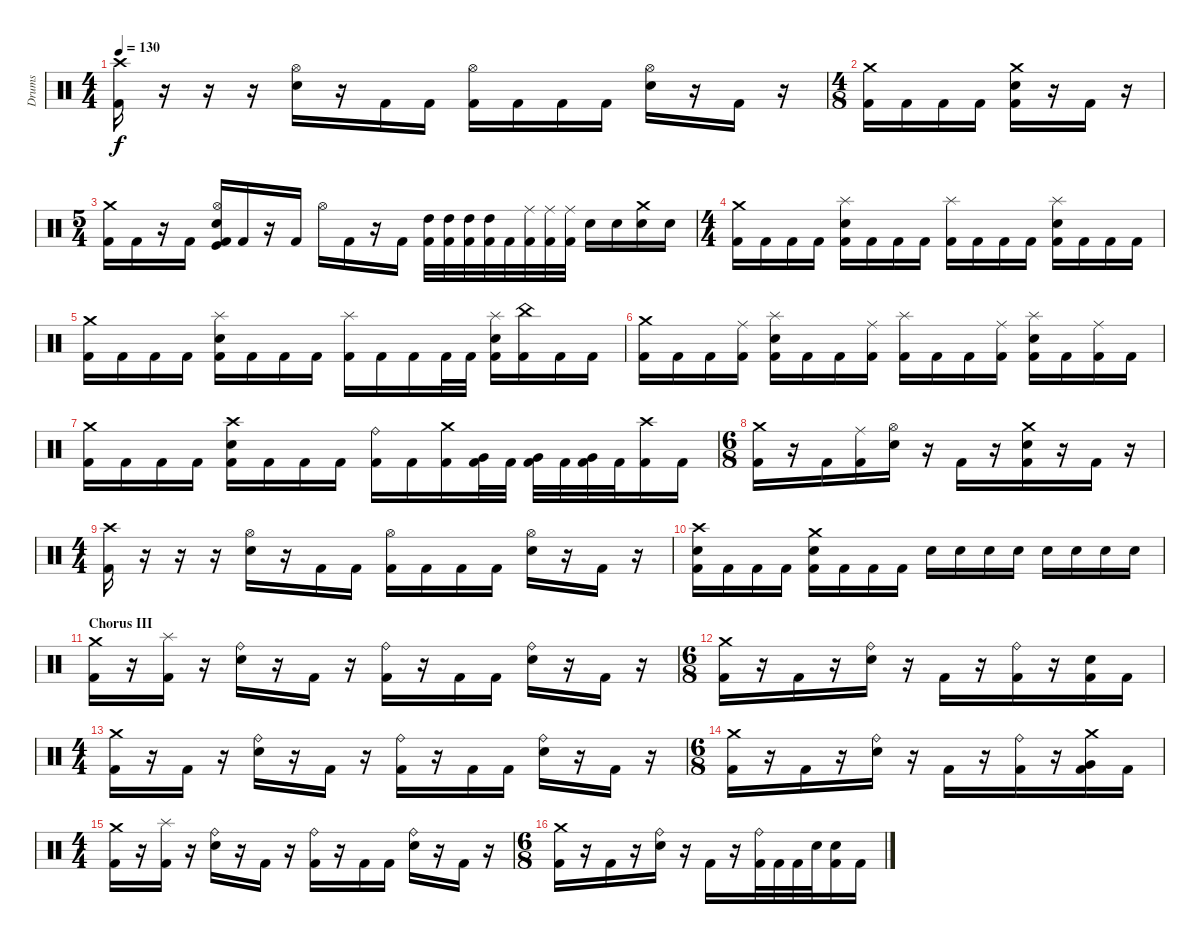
\track ("Drums" "Drums") {instrument percussion}
\staff {score}
\articulation defaults
\ts (4 4)
\tempo 130
\clef neutral
\ks c
("Crash high (hit)" "Kick (hit) 2").16{dy f} r.16 r.16 r.16 ("Hi-Hat (open)" "Electric Snare (hit)").16 r.16 "Kick (hit) 2".16 "Kick (hit) 2".16 ("Hi-Hat (open)" "Kick (hit) 2").16 "Kick (hit) 2".16 "Kick (hit) 2".16 "Kick (hit) 2".16 ("Hi-Hat (open)" "Electric Snare (hit)").16 r.16 "Kick (hit) 2".16 r.16 |
\ts (4 8)
("Crash medium (hit)" "Kick (hit) 2").16 "Kick (hit) 2".16 "Kick (hit) 2".16 "Kick (hit) 2".16 ("Crash medium (hit)" "Electric Snare (hit)" "Kick (hit) 2").16 r.16 "Kick (hit) 2".16 r.16 |
\ts (5 4)
("Crash medium (hit)" "Kick (hit) 2").16 "Kick (hit) 2".16 r.16 "Kick (hit) 2".16 ("Hi-Hat (open)" "Electric Snare (hit)" "Kick (hit) 2" "Kick (hit)").16 "Kick (hit) 2".16 r.16 "Kick (hit) 2".16 "Hi-Hat (open)".16 "Kick (hit) 2".16 r.16 "Kick (hit) 2".16 ("High Tom (hit)" "Kick (hit) 2").32 ("High Tom (hit)" "Kick (hit) 2").32 ("High Tom (hit)" "Kick (hit) 2").32 ("High Tom (hit)" "Kick (hit) 2").32 "Kick (hit) 2".32 ("Ride (middle)" "Kick (hit) 2").32 ("Ride (middle)" "Kick (hit) 2").32 ("Ride (middle)" "Kick (hit) 2").32 "Electric Snare (hit)".16 "Electric Snare (hit)".16 ("Crash medium (hit)" "Electric Snare (hit)").16 "Electric Snare (hit)".16 |
\ts (4 4)
("Crash medium (hit)" "Kick (hit) 2").16 "Kick (hit) 2".16 "Kick (hit) 2".16 "Kick (hit) 2".16 ("Splash (hit)" "Electric Snare (hit)" "Kick (hit) 2").16 "Kick (hit) 2".16 "Kick (hit) 2".16 "Kick (hit) 2".16 ("Splash (hit)" "Kick (hit) 2").16 "Kick (hit) 2".16 "Kick (hit) 2".16 "Kick (hit) 2".16 ("Splash (hit)" "Electric Snare (hit)" "Kick (hit) 2").16 "Kick (hit) 2".16 "Kick (hit) 2".16 "Kick (hit) 2".16 |
("Crash medium (hit)" "Kick (hit) 2").16 "Kick (hit) 2".16 "Kick (hit) 2".16 "Kick (hit) 2".16 ("Splash (hit)" "Electric Snare (hit)" "Kick (hit) 2").16 "Kick (hit) 2".16 "Kick (hit) 2".16 "Kick (hit) 2".16 ("Splash (hit)" "Kick (hit) 2").16 "Kick (hit) 2".16 "Kick (hit) 2".16 "Kick (hit) 2".32 "Kick (hit) 2".32 ("Splash (hit)" "Electric Snare (hit)" "Kick (hit) 2").16 ("China (hit)" "Kick (hit) 2").16 "Kick (hit) 2".16 "Kick (hit) 2".16 |
("Crash medium (hit)" "Kick (hit) 2").16 "Kick (hit) 2".16 "Kick (hit) 2".16 ("Ride (middle)" "Kick (hit) 2").16 ("Splash (hit)" "Electric Snare (hit)" "Kick (hit) 2").16 "Kick (hit) 2".16 "Kick (hit) 2".16 ("Ride (middle)" "Kick (hit) 2").16 ("Splash (hit)" "Kick (hit) 2").16 "Kick (hit) 2".16 "Kick (hit) 2".16 ("Ride (middle)" "Kick (hit) 2").16 ("Splash (hit)" "Electric Snare (hit)" "Kick (hit) 2").16 "Kick (hit) 2".16 ("Ride (middle)" "Kick (hit) 2").16 "Kick (hit) 2".16 |
("Crash medium (hit)" "Kick (hit) 2").16 "Kick (hit) 2".16 "Kick (hit) 2".16 "Kick (hit) 2".16 ("Crash high (hit)" "Electric Snare (hit)" "Kick (hit) 2").16 "Kick (hit) 2".16 "Kick (hit) 2".16 "Kick (hit) 2".16 ("Ride (bell)" "Kick (hit) 2").16 "Kick (hit) 2".16 ("Crash medium (hit)" "Kick (hit) 2").16 ("Very Low Tom (hit)" "Kick (hit) 2").32 "Kick (hit) 2".32 ("Very Low Tom (hit)" "Kick (hit) 2").32 "Kick (hit) 2".32 ("Very Low Tom (hit)" "Kick (hit) 2").32 "Kick (hit) 2".32 ("Crash high (hit)" "Kick (hit) 2").16 "Kick (hit) 2".16 |
\ts (6 8)
("Crash medium (hit)" "Kick (hit) 2").16 r.16 "Kick (hit) 2".16 ("Ride (middle)" "Kick (hit) 2").16 ("Hi-Hat (open)" "Electric Snare (hit)").16 r.16 "Kick (hit) 2".16 r.16 ("Crash medium (hit)" "Electric Snare (hit)" "Kick (hit) 2").16 r.16 "Kick (hit) 2".16 r.16 |
\ts (4 4)
("Crash high (hit)" "Kick (hit) 2").16 r.16 r.16 r.16 ("Hi-Hat (open)" "Electric Snare (hit)").16 r.16 "Kick (hit) 2".16 "Kick (hit) 2".16 ("Hi-Hat (open)" "Kick (hit) 2").16 "Kick (hit) 2".16 "Kick (hit) 2".16 "Kick (hit) 2".16 ("Hi-Hat (open)" "Electric Snare (hit)").16 r.16 "Kick (hit) 2".16 r.16 |
("Crash high (hit)" "Electric Snare (hit)" "Kick (hit) 2").16 "Kick (hit) 2".16 "Kick (hit) 2".16 "Kick (hit) 2".16 ("Crash medium (hit)" "Electric Snare (hit)" "Kick (hit) 2").16 "Kick (hit) 2".16 "Kick (hit) 2".16 "Kick (hit) 2".16 "Electric Snare (hit)".16 "Electric Snare (hit)".16 "Electric Snare (hit)".16 "Electric Snare (hit)".16 "Electric Snare (hit)".16 "Electric Snare (hit)".16 "Electric Snare (hit)".16 "Electric Snare (hit)".16 |
\section ("" "Chorus III")
("Crash medium (hit)" "Kick (hit) 2").16 r.16 ("Splash (hit)" "Kick (hit) 2").16 r.16 ("Ride (bell)" "Electric Snare (hit)").16 r.16 "Kick (hit) 2".16 r.16 ("Ride (bell)" "Kick (hit) 2").16 r.16 "Kick (hit) 2".16 "Kick (hit) 2".16 ("Ride (bell)" "Electric Snare (hit)").16 r.16 "Kick (hit) 2".16 r.16 |
\ts (6 8)
("Crash medium (hit)" "Kick (hit) 2").16 r.16 "Kick (hit) 2".16 r.16 ("Ride (bell)" "Electric Snare (hit)").16 r.16 "Kick (hit) 2".16 r.16 ("Ride (bell)" "Kick (hit) 2").16 r.16 ("Electric Snare (hit)" "Kick (hit) 2").16 "Kick (hit) 2".16 |
\ts (4 4)
("Crash medium (hit)" "Kick (hit) 2").16 r.16 "Kick (hit) 2".16 r.16 ("Ride (bell)" "Electric Snare (hit)").16 r.16 "Kick (hit) 2".16 r.16 ("Ride (bell)" "Kick (hit) 2").16 r.16 "Kick (hit) 2".16 "Kick (hit) 2".16 ("Ride (bell)" "Electric Snare (hit)").16 r.16 "Kick (hit) 2".16 r.16 |
\ts (6 8)
("Crash medium (hit)" "Kick (hit) 2").16 r.16 "Kick (hit) 2".16 r.16 ("Ride (bell)" "Electric Snare (hit)").16 r.16 "Kick (hit) 2".16 r.16 ("Ride (bell)" "Kick (hit) 2").16 r.16 ("Crash medium (hit)" "Very Low Tom (hit)" "Kick (hit) 2").16 "Kick (hit) 2".16 |
\ts (4 4)
("Crash medium (hit)" "Kick (hit) 2").16 r.16 ("Splash (hit)" "Kick (hit) 2").16 r.16 ("Ride (bell)" "Electric Snare (hit)").16 r.16 "Kick (hit) 2".16 r.16 ("Ride (bell)" "Kick (hit) 2").16 r.16 "Kick (hit) 2".16 "Kick (hit) 2".16 ("Ride (bell)" "Electric Snare (hit)").16 r.16 "Kick (hit) 2".16 r.16 |
\ts (6 8)
("Crash medium (hit)" "Kick (hit) 2").16 r.16 "Kick (hit) 2".16 r.16 ("Ride (bell)" "Electric Snare (hit)").16 r.16 "Kick (hit) 2".16 r.16 ("Ride (bell)" "Kick (hit) 2").32 "Kick (hit) 2".32 "Kick (hit) 2".32 "Electric Snare (hit)".32 ("Electric Snare (hit)" "Kick (hit) 2").16 "Kick (hit) 2".16
